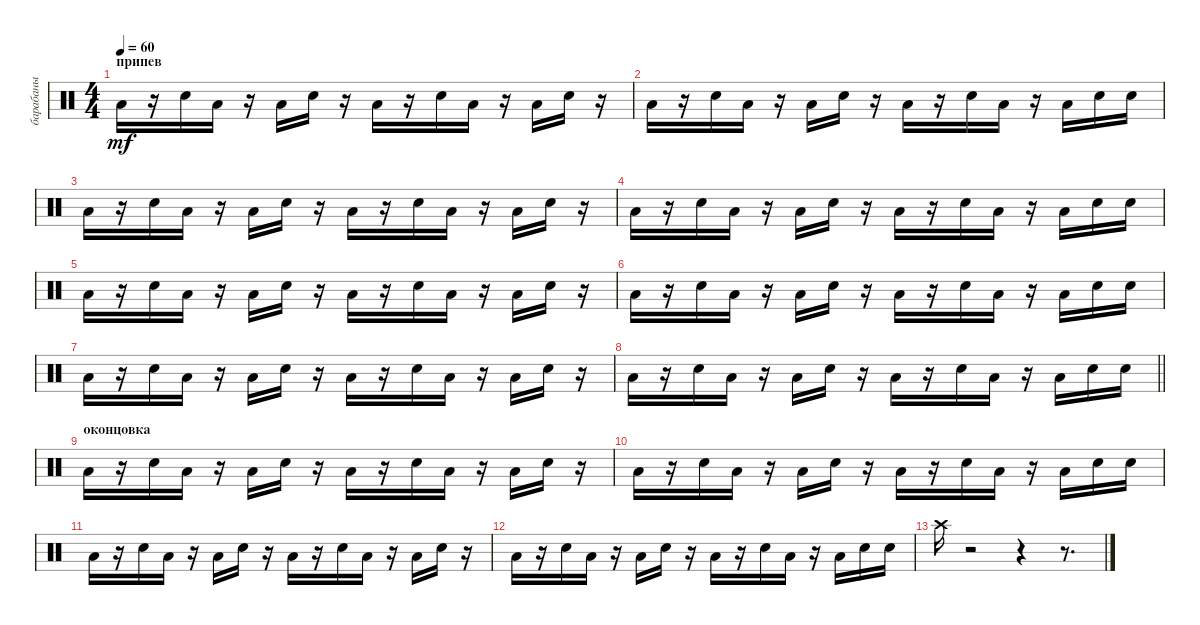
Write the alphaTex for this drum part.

\track ("барабаны" "барабаны") {instrument percussion}
\staff {score}
\articulation defaults
\ts (4 4)
\section ("" "припев")
\tempo 60
\clef neutral
\ks c "Low Floor Tom (hit)".16{dy mf}
r.16 "Snare (hit) 2".16 "Low Floor Tom (hit)".16 r.16 "Low Floor Tom (hit)".16 "Snare (hit) 2".16 r.16 "Low Floor Tom (hit)".16 r.16 "Snare (hit) 2".16 "Low Floor Tom (hit)".16 r.16 "Low Floor Tom (hit)".16 "Snare (hit) 2".16 r.16 |
"Low Floor Tom (hit)".16 r.16 "Snare (hit) 2".16 "Low Floor Tom (hit)".16 r.16 "Low Floor Tom (hit)".16 "Snare (hit) 2".16 r.16 "Low Floor Tom (hit)".16 r.16 "Snare (hit) 2".16 "Low Floor Tom (hit)".16 r.16 "Low Floor Tom (hit)".16 "Snare (hit) 2".16 "Snare (hit) 2".16 |
"Low Floor Tom (hit)".16 r.16 "Snare (hit) 2".16 "Low Floor Tom (hit)".16 r.16 "Low Floor Tom (hit)".16 "Snare (hit) 2".16 r.16 "Low Floor Tom (hit)".16 r.16 "Snare (hit) 2".16 "Low Floor Tom (hit)".16 r.16 "Low Floor Tom (hit)".16 "Snare (hit) 2".16 r.16 |
"Low Floor Tom (hit)".16 r.16 "Snare (hit) 2".16 "Low Floor Tom (hit)".16 r.16 "Low Floor Tom (hit)".16 "Snare (hit) 2".16 r.16 "Low Floor Tom (hit)".16 r.16 "Snare (hit) 2".16 "Low Floor Tom (hit)".16 r.16 "Low Floor Tom (hit)".16 "Snare (hit) 2".16 "Snare (hit) 2".16 |
"Low Floor Tom (hit)".16 r.16 "Snare (hit) 2".16 "Low Floor Tom (hit)".16 r.16 "Low Floor Tom (hit)".16 "Snare (hit) 2".16 r.16 "Low Floor Tom (hit)".16 r.16 "Snare (hit) 2".16 "Low Floor Tom (hit)".16 r.16 "Low Floor Tom (hit)".16 "Snare (hit) 2".16 r.16 |
"Low Floor Tom (hit)".16 r.16 "Snare (hit) 2".16 "Low Floor Tom (hit)".16 r.16 "Low Floor Tom (hit)".16 "Snare (hit) 2".16 r.16 "Low Floor Tom (hit)".16 r.16 "Snare (hit) 2".16 "Low Floor Tom (hit)".16 r.16 "Low Floor Tom (hit)".16 "Snare (hit) 2".16 "Snare (hit) 2".16 |
"Low Floor Tom (hit)".16 r.16 "Snare (hit) 2".16 "Low Floor Tom (hit)".16 r.16 "Low Floor Tom (hit)".16 "Snare (hit) 2".16 r.16 "Low Floor Tom (hit)".16 r.16 "Snare (hit) 2".16 "Low Floor Tom (hit)".16 r.16 "Low Floor Tom (hit)".16 "Snare (hit) 2".16 r.16 |
\barLineRight lightlight "Low Floor Tom (hit)".16
r.16 "Snare (hit) 2".16 "Low Floor Tom (hit)".16 r.16 "Low Floor Tom (hit)".16 "Snare (hit) 2".16 r.16 "Low Floor Tom (hit)".16 r.16 "Snare (hit) 2".16 "Low Floor Tom (hit)".16 r.16 "Low Floor Tom (hit)".16 "Snare (hit) 2".16 "Snare (hit) 2".16 |
\section ("" "оконцовка")
"Low Floor Tom (hit)".16 r.16 "Snare (hit) 2".16 "Low Floor Tom (hit)".16 r.16 "Low Floor Tom (hit)".16 "Snare (hit) 2".16 r.16 "Low Floor Tom (hit)".16 r.16 "Snare (hit) 2".16 "Low Floor Tom (hit)".16 r.16 "Low Floor Tom (hit)".16 "Snare (hit) 2".16 r.16 |
"Low Floor Tom (hit)".16 r.16 "Snare (hit) 2".16 "Low Floor Tom (hit)".16 r.16 "Low Floor Tom (hit)".16 "Snare (hit) 2".16 r.16 "Low Floor Tom (hit)".16 r.16 "Snare (hit) 2".16 "Low Floor Tom (hit)".16 r.16 "Low Floor Tom (hit)".16 "Snare (hit) 2".16 "Snare (hit) 2".16 |
"Low Floor Tom (hit)".16 r.16 "Snare (hit) 2".16 "Low Floor Tom (hit)".16 r.16 "Low Floor Tom (hit)".16 "Snare (hit) 2".16 r.16 "Low Floor Tom (hit)".16 r.16 "Snare (hit) 2".16 "Low Floor Tom (hit)".16 r.16 "Low Floor Tom (hit)".16 "Snare (hit) 2".16 r.16 |
"Low Floor Tom (hit)".16 r.16 "Snare (hit) 2".16 "Low Floor Tom (hit)".16 r.16 "Low Floor Tom (hit)".16 "Snare (hit) 2".16 r.16 "Low Floor Tom (hit)".16 r.16 "Snare (hit) 2".16 "Low Floor Tom (hit)".16 r.16 "Low Floor Tom (hit)".16 "Snare (hit) 2".16 "Snare (hit) 2".16 |
"Crash high (hit)".16 r.2 r.4 r.8{d}
